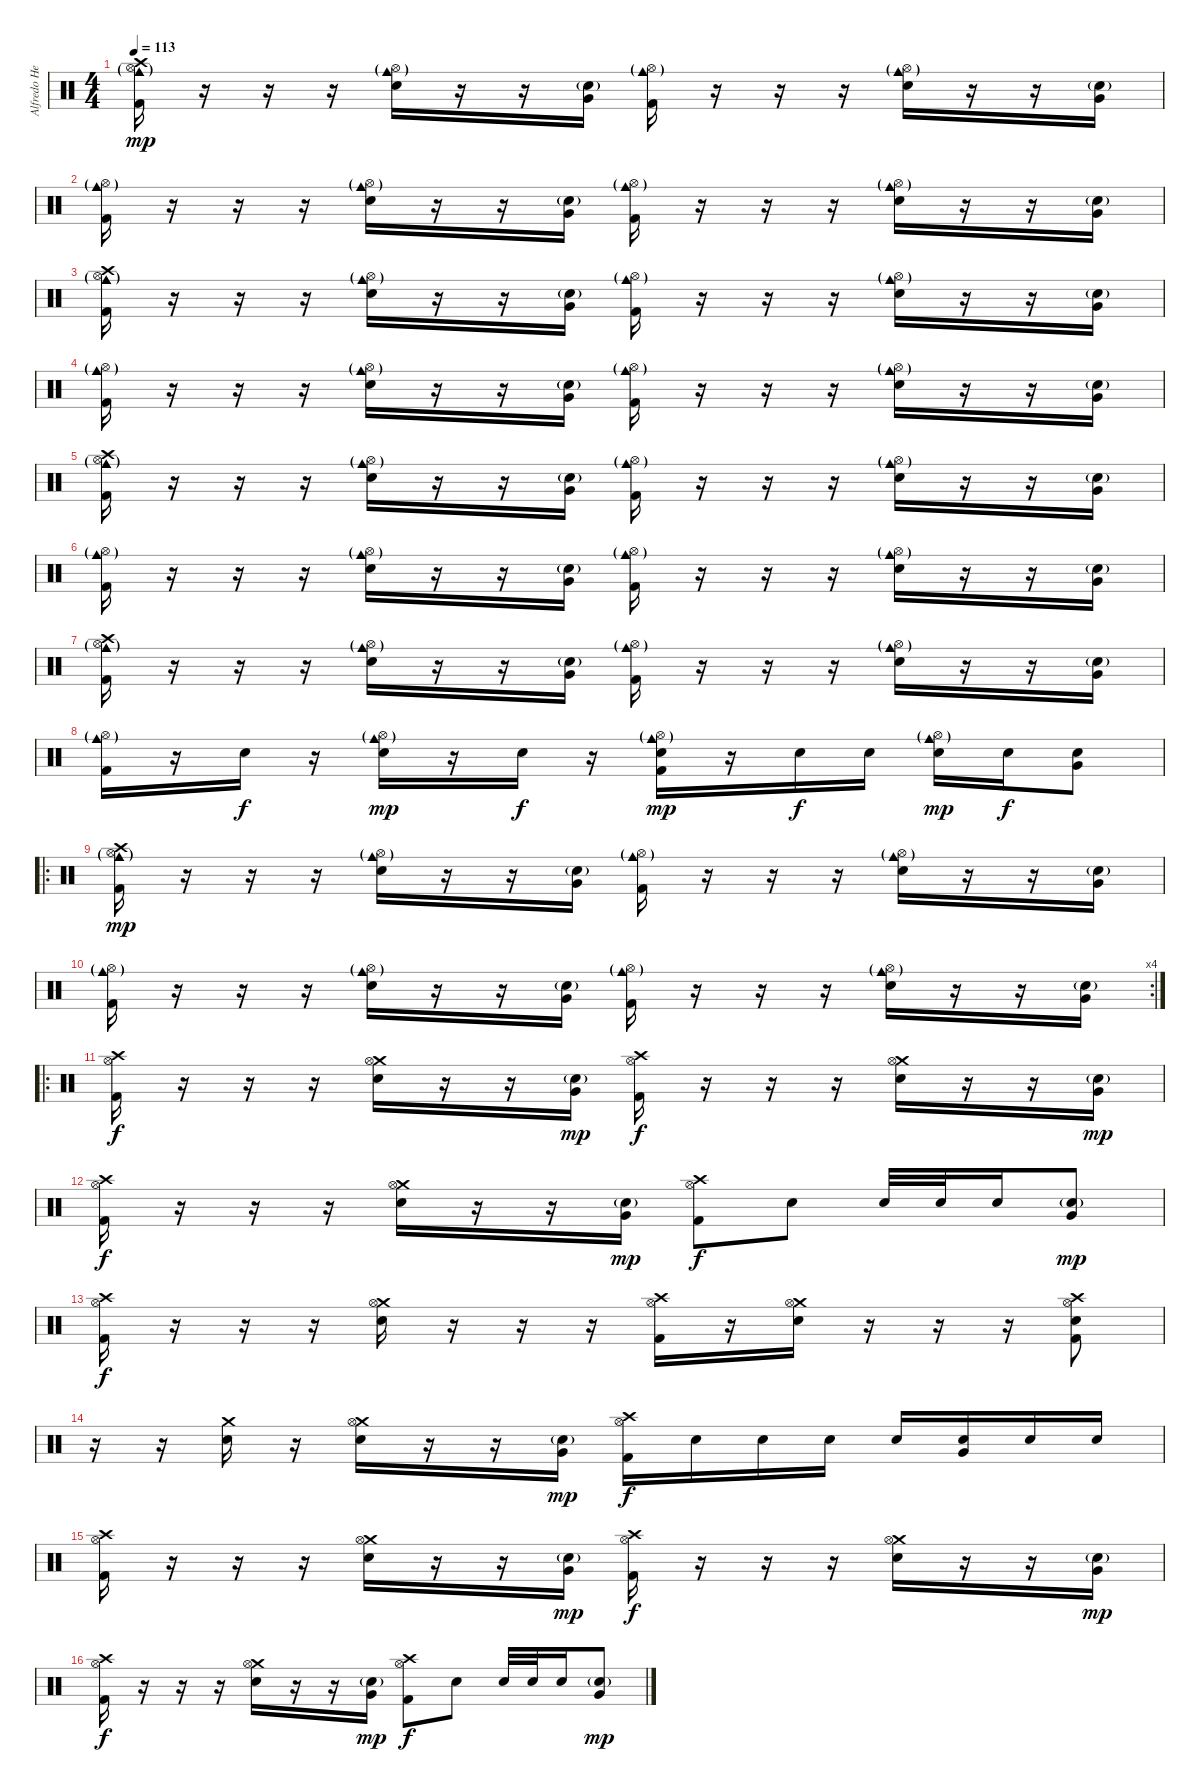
\track ("Alfredo Hernández" "Alfredo He") {instrument percussion}
\staff {score}
\articulation defaults
\ts (4 4)
\tempo 113
\clef neutral
\ks c
("Crash high (hit)" "Cowbell medium (hit)"{g} "Hi-Hat (open)"{g} "Kick (hit) 2").16{dy mp} r.16 r.16 r.16 ("Electric Snare (hit)" "Cowbell medium (hit)"{g} "Hi-Hat (open)"{g}).16 r.16 r.16 ("Electric Snare (hit)"{g} "Very Low Tom (hit)").16 ("Cowbell medium (hit)"{g} "Hi-Hat (open)"{g} "Kick (hit) 2").16 r.16 r.16 r.16 ("Electric Snare (hit)" "Cowbell medium (hit)"{g} "Hi-Hat (open)"{g}).16 r.16 r.16 ("Electric Snare (hit)"{g} "Very Low Tom (hit)").16 |
("Cowbell medium (hit)"{g} "Hi-Hat (open)"{g} "Kick (hit) 2").16 r.16 r.16 r.16 ("Electric Snare (hit)" "Cowbell medium (hit)"{g} "Hi-Hat (open)"{g}).16 r.16 r.16 ("Electric Snare (hit)"{g} "Very Low Tom (hit)").16 ("Cowbell medium (hit)"{g} "Hi-Hat (open)"{g} "Kick (hit) 2").16 r.16 r.16 r.16 ("Electric Snare (hit)" "Cowbell medium (hit)"{g} "Hi-Hat (open)"{g}).16 r.16 r.16 ("Electric Snare (hit)"{g} "Very Low Tom (hit)").16 |
("Crash high (hit)" "Cowbell medium (hit)"{g} "Hi-Hat (open)"{g} "Kick (hit) 2").16 r.16 r.16 r.16 ("Electric Snare (hit)" "Cowbell medium (hit)"{g} "Hi-Hat (open)"{g}).16 r.16 r.16 ("Electric Snare (hit)"{g} "Very Low Tom (hit)").16 ("Cowbell medium (hit)"{g} "Hi-Hat (open)"{g} "Kick (hit) 2").16 r.16 r.16 r.16 ("Electric Snare (hit)" "Cowbell medium (hit)"{g} "Hi-Hat (open)"{g}).16 r.16 r.16 ("Electric Snare (hit)"{g} "Very Low Tom (hit)").16 |
("Cowbell medium (hit)"{g} "Hi-Hat (open)"{g} "Kick (hit) 2").16 r.16 r.16 r.16 ("Electric Snare (hit)" "Cowbell medium (hit)"{g} "Hi-Hat (open)"{g}).16 r.16 r.16 ("Electric Snare (hit)"{g} "Very Low Tom (hit)").16 ("Cowbell medium (hit)"{g} "Hi-Hat (open)"{g} "Kick (hit) 2").16 r.16 r.16 r.16 ("Electric Snare (hit)" "Cowbell medium (hit)"{g} "Hi-Hat (open)"{g}).16 r.16 r.16 ("Electric Snare (hit)"{g} "Very Low Tom (hit)").16 |
("Crash high (hit)" "Cowbell medium (hit)"{g} "Hi-Hat (open)"{g} "Kick (hit) 2").16 r.16 r.16 r.16 ("Electric Snare (hit)" "Cowbell medium (hit)"{g} "Hi-Hat (open)"{g}).16 r.16 r.16 ("Electric Snare (hit)"{g} "Very Low Tom (hit)").16 ("Cowbell medium (hit)"{g} "Hi-Hat (open)"{g} "Kick (hit) 2").16 r.16 r.16 r.16 ("Electric Snare (hit)" "Cowbell medium (hit)"{g} "Hi-Hat (open)"{g}).16 r.16 r.16 ("Electric Snare (hit)"{g} "Very Low Tom (hit)").16 |
("Cowbell medium (hit)"{g} "Hi-Hat (open)"{g} "Kick (hit) 2").16 r.16 r.16 r.16 ("Electric Snare (hit)" "Cowbell medium (hit)"{g} "Hi-Hat (open)"{g}).16 r.16 r.16 ("Electric Snare (hit)"{g} "Very Low Tom (hit)").16 ("Cowbell medium (hit)"{g} "Hi-Hat (open)"{g} "Kick (hit) 2").16 r.16 r.16 r.16 ("Electric Snare (hit)" "Cowbell medium (hit)"{g} "Hi-Hat (open)"{g}).16 r.16 r.16 ("Electric Snare (hit)"{g} "Very Low Tom (hit)").16 |
("Crash high (hit)" "Cowbell medium (hit)"{g} "Hi-Hat (open)"{g} "Kick (hit) 2").16 r.16 r.16 r.16 ("Electric Snare (hit)" "Cowbell medium (hit)"{g} "Hi-Hat (open)"{g}).16 r.16 r.16 ("Electric Snare (hit)"{g} "Very Low Tom (hit)").16 ("Cowbell medium (hit)"{g} "Hi-Hat (open)"{g} "Kick (hit) 2").16 r.16 r.16 r.16 ("Electric Snare (hit)" "Cowbell medium (hit)"{g} "Hi-Hat (open)"{g}).16 r.16 r.16 ("Electric Snare (hit)"{g} "Very Low Tom (hit)").16 |
("Cowbell medium (hit)"{g} "Hi-Hat (open)"{g} "Kick (hit) 2").16 r.16 "Electric Snare (hit)".16{dy f} r.16 ("Electric Snare (hit)" "Cowbell medium (hit)"{g} "Hi-Hat (open)"{g}).16{dy mp} r.16 "Electric Snare (hit)".16{dy f} r.16 ("Electric Snare (hit)" "Cowbell medium (hit)"{g} "Hi-Hat (open)"{g} "Kick (hit) 2").16{dy mp} r.16 "Electric Snare (hit)".16{dy f} "Electric Snare (hit)".16 ("Electric Snare (hit)" "Cowbell medium (hit)"{g} "Hi-Hat (open)"{g}).16{dy mp} "Electric Snare (hit)".16{dy f} ("Electric Snare (hit)" "Very Low Tom (hit)").8 |
\ro
("Crash high (hit)" "Cowbell medium (hit)"{g} "Hi-Hat (open)"{g} "Kick (hit) 2").16{dy mp} r.16 r.16 r.16 ("Electric Snare (hit)" "Cowbell medium (hit)"{g} "Hi-Hat (open)"{g}).16 r.16 r.16 ("Electric Snare (hit)"{g} "Very Low Tom (hit)").16 ("Cowbell medium (hit)"{g} "Hi-Hat (open)"{g} "Kick (hit) 2").16 r.16 r.16 r.16 ("Electric Snare (hit)" "Cowbell medium (hit)"{g} "Hi-Hat (open)"{g}).16 r.16 r.16 ("Electric Snare (hit)"{g} "Very Low Tom (hit)").16 |
\rc 4
("Cowbell medium (hit)"{g} "Hi-Hat (open)"{g} "Kick (hit) 2").16 r.16 r.16 r.16 ("Electric Snare (hit)" "Cowbell medium (hit)"{g} "Hi-Hat (open)"{g}).16 r.16 r.16 ("Electric Snare (hit)"{g} "Very Low Tom (hit)").16 ("Cowbell medium (hit)"{g} "Hi-Hat (open)"{g} "Kick (hit) 2").16 r.16 r.16 r.16 ("Electric Snare (hit)" "Cowbell medium (hit)"{g} "Hi-Hat (open)"{g}).16 r.16 r.16 ("Electric Snare (hit)"{g} "Very Low Tom (hit)").16 |
\ro
("Crash high (hit)" "Hi-Hat (open)" "Kick (hit) 2").16{dy f} r.16 r.16 r.16 ("Crash medium (hit)" "Electric Snare (hit)" "Hi-Hat (open)").16 r.16 r.16 ("Electric Snare (hit)"{g} "Very Low Tom (hit)").16{dy mp} ("Crash high (hit)" "Hi-Hat (open)" "Kick (hit) 2").16{dy f} r.16 r.16 r.16 ("Crash medium (hit)" "Electric Snare (hit)" "Hi-Hat (open)").16 r.16 r.16 ("Electric Snare (hit)"{g} "Very Low Tom (hit)").16{dy mp} |
("Crash high (hit)" "Hi-Hat (open)" "Kick (hit) 2").16{dy f} r.16 r.16 r.16 ("Crash medium (hit)" "Electric Snare (hit)" "Hi-Hat (open)").16 r.16 r.16 ("Electric Snare (hit)"{g} "Very Low Tom (hit)").16{dy mp} ("Crash high (hit)" "Hi-Hat (open)" "Kick (hit) 2").8{dy f} "Electric Snare (hit)".8 "Electric Snare (hit)".32 "Electric Snare (hit)".32 "Electric Snare (hit)".16 ("Electric Snare (hit)"{g} "Very Low Tom (hit)").8{dy mp} |
("Crash high (hit)" "Hi-Hat (open)" "Kick (hit) 2").16{dy f} r.16 r.16 r.16 ("Crash medium (hit)" "Electric Snare (hit)" "Hi-Hat (open)").16 r.16 r.16 r.16 ("Crash high (hit)" "Hi-Hat (open)" "Kick (hit) 2").16 r.16 ("Crash medium (hit)" "Electric Snare (hit)" "Hi-Hat (open)").16 r.16 r.16 r.16 ("Crash high (hit)" "Electric Snare (hit)" "Hi-Hat (open)" "Kick (hit) 2").8 |
r.16 r.16 ("Crash medium (hit)" "Electric Snare (hit)").16 r.16 ("Crash medium (hit)" "Electric Snare (hit)" "Hi-Hat (open)").16 r.16 r.16 ("Electric Snare (hit)"{g} "Very Low Tom (hit)").16{dy mp} ("Crash high (hit)" "Hi-Hat (open)" "Kick (hit) 2").16{dy f} "Electric Snare (hit)".16 "Electric Snare (hit)".16 "Electric Snare (hit)".16 "Electric Snare (hit)".16 ("Electric Snare (hit)" "Very Low Tom (hit)").16 "Electric Snare (hit)".16 "Electric Snare (hit)".16 |
("Crash high (hit)" "Hi-Hat (open)" "Kick (hit) 2").16 r.16 r.16 r.16 ("Crash medium (hit)" "Electric Snare (hit)" "Hi-Hat (open)").16 r.16 r.16 ("Electric Snare (hit)"{g} "Very Low Tom (hit)").16{dy mp} ("Crash high (hit)" "Hi-Hat (open)" "Kick (hit) 2").16{dy f} r.16 r.16 r.16 ("Crash medium (hit)" "Electric Snare (hit)" "Hi-Hat (open)").16 r.16 r.16 ("Electric Snare (hit)"{g} "Very Low Tom (hit)").16{dy mp} |
("Crash high (hit)" "Hi-Hat (open)" "Kick (hit) 2").16{dy f} r.16 r.16 r.16 ("Crash medium (hit)" "Electric Snare (hit)" "Hi-Hat (open)").16 r.16 r.16 ("Electric Snare (hit)"{g} "Very Low Tom (hit)").16{dy mp} ("Crash high (hit)" "Hi-Hat (open)" "Kick (hit) 2").8{dy f} "Electric Snare (hit)".8 "Electric Snare (hit)".32 "Electric Snare (hit)".32 "Electric Snare (hit)".16 ("Electric Snare (hit)"{g} "Very Low Tom (hit)").8{dy mp}
